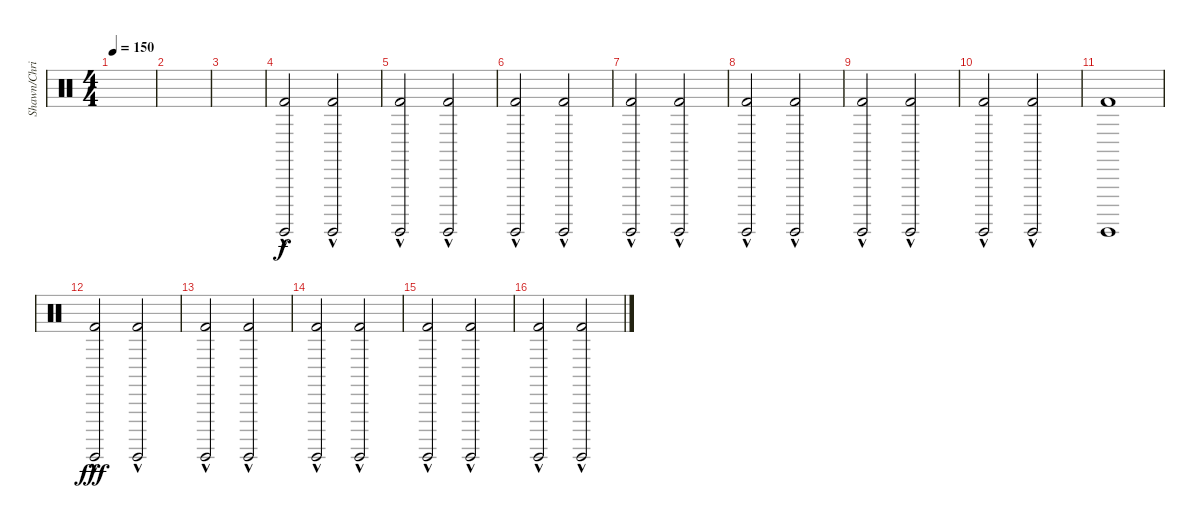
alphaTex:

\track ("Shawn/Chris" "Shawn/Chri") {instrument percussion}
\staff {score}
\articulation defaults
\ts (4 4)
\tempo 150
\clef neutral
\ks c
|
|
|
("Surdo (hit)"{hac} "Kick (hit) 2"{hac}).2 ("Surdo (hit)"{hac} "Kick (hit) 2"{hac}).2 |
("Surdo (hit)"{hac} "Kick (hit) 2"{hac}).2 ("Surdo (hit)"{hac} "Kick (hit) 2"{hac}).2 |
("Surdo (hit)"{hac} "Kick (hit) 2"{hac}).2 ("Surdo (hit)"{hac} "Kick (hit) 2"{hac}).2 |
("Surdo (hit)"{hac} "Kick (hit) 2"{hac}).2 ("Surdo (hit)"{hac} "Kick (hit) 2"{hac}).2 |
("Surdo (hit)"{hac} "Kick (hit) 2"{hac}).2 ("Surdo (hit)"{hac} "Kick (hit) 2"{hac}).2 |
("Surdo (hit)"{hac} "Kick (hit) 2"{hac}).2 ("Surdo (hit)"{hac} "Kick (hit) 2"{hac}).2 |
("Surdo (hit)"{hac} "Kick (hit) 2"{hac}).2 ("Surdo (hit)"{hac} "Kick (hit) 2"{hac}).2 |
("Surdo (hit)" "Kick (hit) 2").1{dy f} |
("Surdo (hit)"{hac} "Kick (hit) 2"{hac}).2{dy fff} ("Surdo (hit)"{hac} "Kick (hit) 2"{hac}).2 |
("Surdo (hit)"{hac} "Kick (hit) 2"{hac}).2 ("Surdo (hit)"{hac} "Kick (hit) 2"{hac}).2 |
("Surdo (hit)"{hac} "Kick (hit) 2"{hac}).2 ("Surdo (hit)"{hac} "Kick (hit) 2"{hac}).2 |
("Surdo (hit)"{hac} "Kick (hit) 2"{hac}).2 ("Surdo (hit)"{hac} "Kick (hit) 2"{hac}).2 |
("Surdo (hit)"{hac} "Kick (hit) 2"{hac}).2 ("Surdo (hit)"{hac} "Kick (hit) 2"{hac}).2
